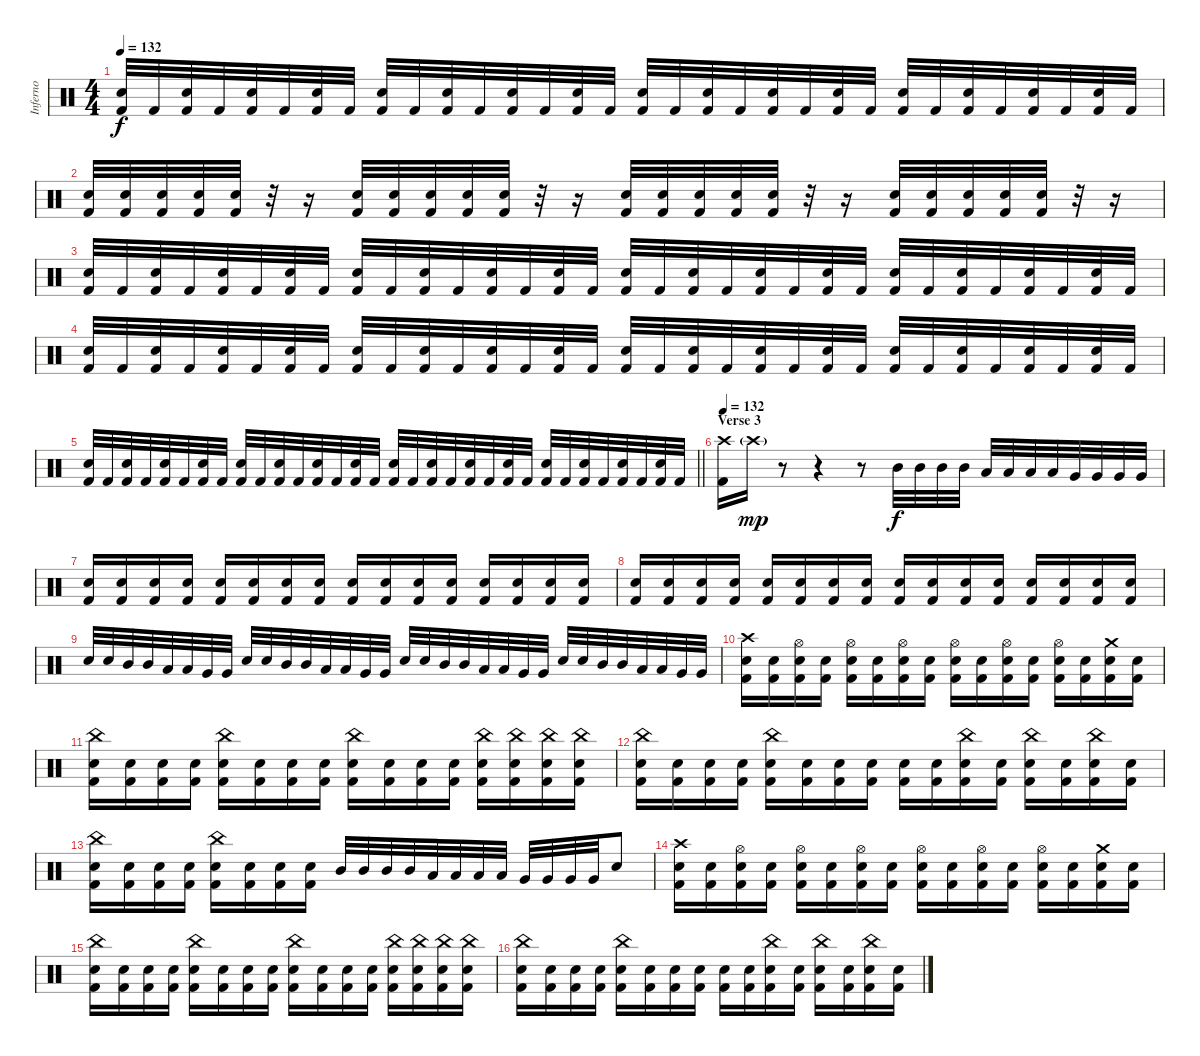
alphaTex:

\track ("Inferno" "Inferno") {instrument percussion}
\staff {score}
\articulation defaults
\ts (4 4)
\tempo 132
\clef neutral
\ks c
("Electric Snare (hit)" "Kick (hit) 2").32{dy f} "Kick (hit) 2".32 ("Electric Snare (hit)" "Kick (hit) 2").32 "Kick (hit) 2".32 ("Electric Snare (hit)" "Kick (hit) 2").32 "Kick (hit) 2".32 ("Electric Snare (hit)" "Kick (hit) 2").32 "Kick (hit) 2".32 ("Electric Snare (hit)" "Kick (hit) 2").32 "Kick (hit) 2".32 ("Electric Snare (hit)" "Kick (hit) 2").32 "Kick (hit) 2".32 ("Electric Snare (hit)" "Kick (hit) 2").32 "Kick (hit) 2".32 ("Electric Snare (hit)" "Kick (hit) 2").32 "Kick (hit) 2".32 ("Electric Snare (hit)" "Kick (hit) 2").32 "Kick (hit) 2".32 ("Electric Snare (hit)" "Kick (hit) 2").32 "Kick (hit) 2".32 ("Electric Snare (hit)" "Kick (hit) 2").32 "Kick (hit) 2".32 ("Electric Snare (hit)" "Kick (hit) 2").32 "Kick (hit) 2".32 ("Electric Snare (hit)" "Kick (hit) 2").32 "Kick (hit) 2".32 ("Electric Snare (hit)" "Kick (hit) 2").32 "Kick (hit) 2".32 ("Electric Snare (hit)" "Kick (hit) 2").32 "Kick (hit) 2".32 ("Electric Snare (hit)" "Kick (hit) 2").32 "Kick (hit) 2".32 |
("Electric Snare (hit)" "Kick (hit) 2").32 ("Electric Snare (hit)" "Kick (hit) 2").32 ("Electric Snare (hit)" "Kick (hit) 2").32 ("Electric Snare (hit)" "Kick (hit) 2").32 ("Electric Snare (hit)" "Kick (hit) 2").32 r.32 r.16 ("Electric Snare (hit)" "Kick (hit) 2").32 ("Electric Snare (hit)" "Kick (hit) 2").32 ("Electric Snare (hit)" "Kick (hit) 2").32 ("Electric Snare (hit)" "Kick (hit) 2").32 ("Electric Snare (hit)" "Kick (hit) 2").32 r.32 r.16 ("Electric Snare (hit)" "Kick (hit) 2").32 ("Electric Snare (hit)" "Kick (hit) 2").32 ("Electric Snare (hit)" "Kick (hit) 2").32 ("Electric Snare (hit)" "Kick (hit) 2").32 ("Electric Snare (hit)" "Kick (hit) 2").32 r.32 r.16 ("Electric Snare (hit)" "Kick (hit) 2").32 ("Electric Snare (hit)" "Kick (hit) 2").32 ("Electric Snare (hit)" "Kick (hit) 2").32 ("Electric Snare (hit)" "Kick (hit) 2").32 ("Electric Snare (hit)" "Kick (hit) 2").32 r.32 r.16 |
("Electric Snare (hit)" "Kick (hit) 2").32 "Kick (hit) 2".32 ("Electric Snare (hit)" "Kick (hit) 2").32 "Kick (hit) 2".32 ("Electric Snare (hit)" "Kick (hit) 2").32 "Kick (hit) 2".32 ("Electric Snare (hit)" "Kick (hit) 2").32 "Kick (hit) 2".32 ("Electric Snare (hit)" "Kick (hit) 2").32 "Kick (hit) 2".32 ("Electric Snare (hit)" "Kick (hit) 2").32 "Kick (hit) 2".32 ("Electric Snare (hit)" "Kick (hit) 2").32 "Kick (hit) 2".32 ("Electric Snare (hit)" "Kick (hit) 2").32 "Kick (hit) 2".32 ("Electric Snare (hit)" "Kick (hit) 2").32 "Kick (hit) 2".32 ("Electric Snare (hit)" "Kick (hit) 2").32 "Kick (hit) 2".32 ("Electric Snare (hit)" "Kick (hit) 2").32 "Kick (hit) 2".32 ("Electric Snare (hit)" "Kick (hit) 2").32 "Kick (hit) 2".32 ("Electric Snare (hit)" "Kick (hit) 2").32 "Kick (hit) 2".32 ("Electric Snare (hit)" "Kick (hit) 2").32 "Kick (hit) 2".32 ("Electric Snare (hit)" "Kick (hit) 2").32 "Kick (hit) 2".32 ("Electric Snare (hit)" "Kick (hit) 2").32 "Kick (hit) 2".32 |
("Electric Snare (hit)" "Kick (hit) 2").32 "Kick (hit) 2".32 ("Electric Snare (hit)" "Kick (hit) 2").32 "Kick (hit) 2".32 ("Electric Snare (hit)" "Kick (hit) 2").32 "Kick (hit) 2".32 ("Electric Snare (hit)" "Kick (hit) 2").32 "Kick (hit) 2".32 ("Electric Snare (hit)" "Kick (hit) 2").32 "Kick (hit) 2".32 ("Electric Snare (hit)" "Kick (hit) 2").32 "Kick (hit) 2".32 ("Electric Snare (hit)" "Kick (hit) 2").32 "Kick (hit) 2".32 ("Electric Snare (hit)" "Kick (hit) 2").32 "Kick (hit) 2".32 ("Electric Snare (hit)" "Kick (hit) 2").32 "Kick (hit) 2".32 ("Electric Snare (hit)" "Kick (hit) 2").32 "Kick (hit) 2".32 ("Electric Snare (hit)" "Kick (hit) 2").32 "Kick (hit) 2".32 ("Electric Snare (hit)" "Kick (hit) 2").32 "Kick (hit) 2".32 ("Electric Snare (hit)" "Kick (hit) 2").32 "Kick (hit) 2".32 ("Electric Snare (hit)" "Kick (hit) 2").32 "Kick (hit) 2".32 ("Electric Snare (hit)" "Kick (hit) 2").32 "Kick (hit) 2".32 ("Electric Snare (hit)" "Kick (hit) 2").32 "Kick (hit) 2".32 |
\barLineRight lightlight
("Electric Snare (hit)" "Kick (hit) 2").32 "Kick (hit) 2".32 ("Electric Snare (hit)" "Kick (hit) 2").32 "Kick (hit) 2".32 ("Electric Snare (hit)" "Kick (hit) 2").32 "Kick (hit) 2".32 ("Electric Snare (hit)" "Kick (hit) 2").32 "Kick (hit) 2".32 ("Electric Snare (hit)" "Kick (hit) 2").32 "Kick (hit) 2".32 ("Electric Snare (hit)" "Kick (hit) 2").32 "Kick (hit) 2".32 ("Electric Snare (hit)" "Kick (hit) 2").32 "Kick (hit) 2".32 ("Electric Snare (hit)" "Kick (hit) 2").32 "Kick (hit) 2".32 ("Electric Snare (hit)" "Kick (hit) 2").32 "Kick (hit) 2".32 ("Electric Snare (hit)" "Kick (hit) 2").32 "Kick (hit) 2".32 ("Electric Snare (hit)" "Kick (hit) 2").32 "Kick (hit) 2".32 ("Electric Snare (hit)" "Kick (hit) 2").32 "Kick (hit) 2".32 ("Electric Snare (hit)" "Kick (hit) 2").32 "Kick (hit) 2".32 ("Electric Snare (hit)" "Kick (hit) 2").32 "Kick (hit) 2".32 ("Electric Snare (hit)" "Kick (hit) 2").32 "Kick (hit) 2".32 ("Electric Snare (hit)" "Kick (hit) 2").32 "Kick (hit) 2".32 |
\section ("" "Verse 3")
\tempo 132
("Crash high (hit)" "Kick (hit) 2").16 "Crash high (hit)"{g}.16{dy mp} r.8 r.4 r.8 "Mid Tom (hit)".32{dy f} "Mid Tom (hit)".32 "Mid Tom (hit)".32 "Mid Tom (hit)".32 "Low Tom (hit)".32 "Low Tom (hit)".32 "Low Tom (hit)".32 "Low Tom (hit)".32 "Very Low Tom (hit)".32 "Very Low Tom (hit)".32 "Very Low Tom (hit)".32 "Very Low Tom (hit)".32 |
("Electric Snare (hit)" "Kick (hit) 2").16 ("Electric Snare (hit)" "Kick (hit) 2").16 ("Electric Snare (hit)" "Kick (hit) 2").16 ("Electric Snare (hit)" "Kick (hit) 2").16 ("Electric Snare (hit)" "Kick (hit) 2").16 ("Electric Snare (hit)" "Kick (hit) 2").16 ("Electric Snare (hit)" "Kick (hit) 2").16 ("Electric Snare (hit)" "Kick (hit) 2").16 ("Electric Snare (hit)" "Kick (hit) 2").16 ("Electric Snare (hit)" "Kick (hit) 2").16 ("Electric Snare (hit)" "Kick (hit) 2").16 ("Electric Snare (hit)" "Kick (hit) 2").16 ("Electric Snare (hit)" "Kick (hit) 2").16 ("Electric Snare (hit)" "Kick (hit) 2").16 ("Electric Snare (hit)" "Kick (hit) 2").16 ("Electric Snare (hit)" "Kick (hit) 2").16 |
("Electric Snare (hit)" "Kick (hit) 2").16 ("Electric Snare (hit)" "Kick (hit) 2").16 ("Electric Snare (hit)" "Kick (hit) 2").16 ("Electric Snare (hit)" "Kick (hit) 2").16 ("Electric Snare (hit)" "Kick (hit) 2").16 ("Electric Snare (hit)" "Kick (hit) 2").16 ("Electric Snare (hit)" "Kick (hit) 2").16 ("Electric Snare (hit)" "Kick (hit) 2").16 ("Electric Snare (hit)" "Kick (hit) 2").16 ("Electric Snare (hit)" "Kick (hit) 2").16 ("Electric Snare (hit)" "Kick (hit) 2").16 ("Electric Snare (hit)" "Kick (hit) 2").16 ("Electric Snare (hit)" "Kick (hit) 2").16 ("Electric Snare (hit)" "Kick (hit) 2").16 ("Electric Snare (hit)" "Kick (hit) 2").16 ("Electric Snare (hit)" "Kick (hit) 2").16 |
"Electric Snare (hit)".32 "Electric Snare (hit)".32 "Mid Tom (hit)".32 "Mid Tom (hit)".32 "Low Tom (hit)".32 "Low Tom (hit)".32 "Very Low Tom (hit)".32 "Very Low Tom (hit)".32 "Electric Snare (hit)".32 "Electric Snare (hit)".32 "Mid Tom (hit)".32 "Mid Tom (hit)".32 "Low Tom (hit)".32 "Low Tom (hit)".32 "Very Low Tom (hit)".32 "Very Low Tom (hit)".32 "Electric Snare (hit)".32 "Electric Snare (hit)".32 "Mid Tom (hit)".32 "Mid Tom (hit)".32 "Low Tom (hit)".32 "Low Tom (hit)".32 "Very Low Tom (hit)".32 "Very Low Tom (hit)".32 "Electric Snare (hit)".32 "Electric Snare (hit)".32 "Mid Tom (hit)".32 "Mid Tom (hit)".32 "Low Tom (hit)".32 "Low Tom (hit)".32 "Very Low Tom (hit)".32 "Very Low Tom (hit)".32 |
("Crash high (hit)" "Electric Snare (hit)" "Kick (hit) 2").16 ("Electric Snare (hit)" "Kick (hit) 2").16 ("Hi-Hat (open)" "Electric Snare (hit)" "Kick (hit) 2").16 ("Electric Snare (hit)" "Kick (hit) 2").16 ("Hi-Hat (open)" "Electric Snare (hit)" "Kick (hit) 2").16 ("Electric Snare (hit)" "Kick (hit) 2").16 ("Hi-Hat (open)" "Electric Snare (hit)" "Kick (hit) 2").16 ("Electric Snare (hit)" "Kick (hit) 2").16 ("Hi-Hat (open)" "Electric Snare (hit)" "Kick (hit) 2").16 ("Electric Snare (hit)" "Kick (hit) 2").16 ("Hi-Hat (open)" "Electric Snare (hit)" "Kick (hit) 2").16 ("Electric Snare (hit)" "Kick (hit) 2").16 ("Hi-Hat (open)" "Electric Snare (hit)" "Kick (hit) 2").16 ("Electric Snare (hit)" "Kick (hit) 2").16 ("Crash medium (hit)" "Electric Snare (hit)" "Kick (hit) 2").16 ("Electric Snare (hit)" "Kick (hit) 2").16 |
("China (hit)" "Electric Snare (hit)" "Kick (hit) 2").16 ("Electric Snare (hit)" "Kick (hit) 2").16 ("Electric Snare (hit)" "Kick (hit) 2").16 ("Electric Snare (hit)" "Kick (hit) 2").16 ("China (hit)" "Electric Snare (hit)" "Kick (hit) 2").16 ("Electric Snare (hit)" "Kick (hit) 2").16 ("Electric Snare (hit)" "Kick (hit) 2").16 ("Electric Snare (hit)" "Kick (hit) 2").16 ("China (hit)" "Electric Snare (hit)" "Kick (hit) 2").16 ("Electric Snare (hit)" "Kick (hit) 2").16 ("Electric Snare (hit)" "Kick (hit) 2").16 ("Electric Snare (hit)" "Kick (hit) 2").16 ("China (hit)" "Electric Snare (hit)" "Kick (hit) 2").16 ("China (hit)" "Electric Snare (hit)" "Kick (hit) 2").16 ("China (hit)" "Electric Snare (hit)" "Kick (hit) 2").16 ("China (hit)" "Electric Snare (hit)" "Kick (hit) 2").16 |
("China (hit)" "Electric Snare (hit)" "Kick (hit) 2").16 ("Electric Snare (hit)" "Kick (hit) 2").16 ("Electric Snare (hit)" "Kick (hit) 2").16 ("Electric Snare (hit)" "Kick (hit) 2").16 ("China (hit)" "Electric Snare (hit)" "Kick (hit) 2").16 ("Electric Snare (hit)" "Kick (hit) 2").16 ("Electric Snare (hit)" "Kick (hit) 2").16 ("Electric Snare (hit)" "Kick (hit) 2").16 ("Electric Snare (hit)" "Kick (hit) 2").16 ("Electric Snare (hit)" "Kick (hit) 2").16 ("China (hit)" "Electric Snare (hit)" "Kick (hit) 2").16 ("Electric Snare (hit)" "Kick (hit) 2").16 ("China (hit)" "Electric Snare (hit)" "Kick (hit) 2").16 ("Electric Snare (hit)" "Kick (hit) 2").16 ("China (hit)" "Electric Snare (hit)" "Kick (hit) 2").16 ("Electric Snare (hit)" "Kick (hit) 2").16 |
("China (hit)" "Electric Snare (hit)" "Kick (hit) 2").16 ("Electric Snare (hit)" "Kick (hit) 2").16 ("Electric Snare (hit)" "Kick (hit) 2").16 ("Electric Snare (hit)" "Kick (hit) 2").16 ("China (hit)" "Electric Snare (hit)" "Kick (hit) 2").16 ("Electric Snare (hit)" "Kick (hit) 2").16 ("Electric Snare (hit)" "Kick (hit) 2").16 ("Electric Snare (hit)" "Kick (hit) 2").16 "Mid Tom (hit)".32 "Mid Tom (hit)".32 "Mid Tom (hit)".32 "Mid Tom (hit)".32 "Low Tom (hit)".32 "Low Tom (hit)".32 "Low Tom (hit)".32 "Low Tom (hit)".32 "Very Low Tom (hit)".32 "Very Low Tom (hit)".32 "Very Low Tom (hit)".32 "Very Low Tom (hit)".32 "Electric Snare (hit)".8 |
("Crash high (hit)" "Electric Snare (hit)" "Kick (hit) 2").16 ("Electric Snare (hit)" "Kick (hit) 2").16 ("Hi-Hat (open)" "Electric Snare (hit)" "Kick (hit) 2").16 ("Electric Snare (hit)" "Kick (hit) 2").16 ("Hi-Hat (open)" "Electric Snare (hit)" "Kick (hit) 2").16 ("Electric Snare (hit)" "Kick (hit) 2").16 ("Hi-Hat (open)" "Electric Snare (hit)" "Kick (hit) 2").16 ("Electric Snare (hit)" "Kick (hit) 2").16 ("Hi-Hat (open)" "Electric Snare (hit)" "Kick (hit) 2").16 ("Electric Snare (hit)" "Kick (hit) 2").16 ("Hi-Hat (open)" "Electric Snare (hit)" "Kick (hit) 2").16 ("Electric Snare (hit)" "Kick (hit) 2").16 ("Hi-Hat (open)" "Electric Snare (hit)" "Kick (hit) 2").16 ("Electric Snare (hit)" "Kick (hit) 2").16 ("Crash medium (hit)" "Electric Snare (hit)" "Kick (hit) 2").16 ("Electric Snare (hit)" "Kick (hit) 2").16 |
("China (hit)" "Electric Snare (hit)" "Kick (hit) 2").16 ("Electric Snare (hit)" "Kick (hit) 2").16 ("Electric Snare (hit)" "Kick (hit) 2").16 ("Electric Snare (hit)" "Kick (hit) 2").16 ("China (hit)" "Electric Snare (hit)" "Kick (hit) 2").16 ("Electric Snare (hit)" "Kick (hit) 2").16 ("Electric Snare (hit)" "Kick (hit) 2").16 ("Electric Snare (hit)" "Kick (hit) 2").16 ("China (hit)" "Electric Snare (hit)" "Kick (hit) 2").16 ("Electric Snare (hit)" "Kick (hit) 2").16 ("Electric Snare (hit)" "Kick (hit) 2").16 ("Electric Snare (hit)" "Kick (hit) 2").16 ("China (hit)" "Electric Snare (hit)" "Kick (hit) 2").16 ("China (hit)" "Electric Snare (hit)" "Kick (hit) 2").16 ("China (hit)" "Electric Snare (hit)" "Kick (hit) 2").16 ("China (hit)" "Electric Snare (hit)" "Kick (hit) 2").16 |
("China (hit)" "Electric Snare (hit)" "Kick (hit) 2").16 ("Electric Snare (hit)" "Kick (hit) 2").16 ("Electric Snare (hit)" "Kick (hit) 2").16 ("Electric Snare (hit)" "Kick (hit) 2").16 ("China (hit)" "Electric Snare (hit)" "Kick (hit) 2").16 ("Electric Snare (hit)" "Kick (hit) 2").16 ("Electric Snare (hit)" "Kick (hit) 2").16 ("Electric Snare (hit)" "Kick (hit) 2").16 ("Electric Snare (hit)" "Kick (hit) 2").16 ("Electric Snare (hit)" "Kick (hit) 2").16 ("China (hit)" "Electric Snare (hit)" "Kick (hit) 2").16 ("Electric Snare (hit)" "Kick (hit) 2").16 ("China (hit)" "Electric Snare (hit)" "Kick (hit) 2").16 ("Electric Snare (hit)" "Kick (hit) 2").16 ("China (hit)" "Electric Snare (hit)" "Kick (hit) 2").16 ("Electric Snare (hit)" "Kick (hit) 2").16
